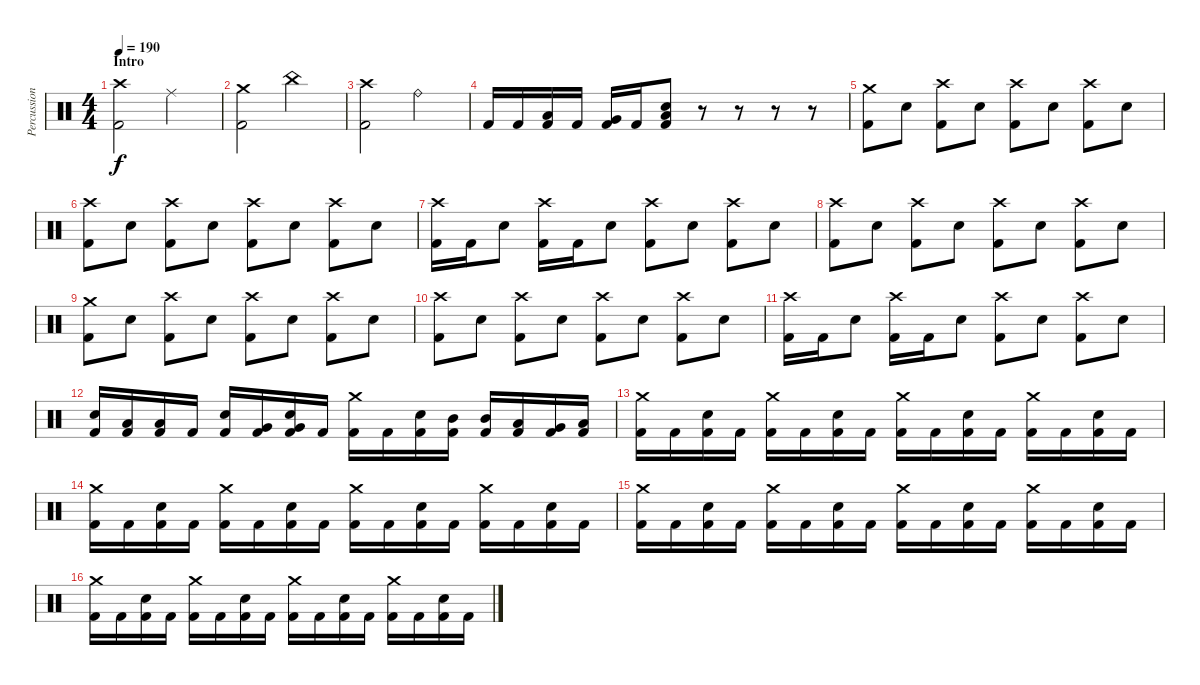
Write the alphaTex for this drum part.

\track ("Percussion" "Percussion") {instrument percussion}
\staff {score}
\articulation defaults
\ts (4 4)
\section ("" "Intro")
\tempo 190
\clef neutral
\ks c
("Crash high (hit)" "Kick (hit) 2").2{dy f} "Ride (middle)".2 |
("Crash medium (hit)" "Kick (hit) 2").2 "China (hit)".2 |
("Crash high (hit)" "Kick (hit) 2").2 "Ride (bell)".2 |
"Kick (hit) 2".16 "Kick (hit) 2".16 ("Low Tom (hit)" "Kick (hit) 2").16 "Kick (hit) 2".16 ("Very Low Tom (hit)" "Kick (hit) 2").16 "Kick (hit) 2".16 ("Low Floor Tom (hit)" "Snare (hit) 2" "Kick (hit) 2").8 r.8 r.8 r.8 r.8 |
("Crash medium (hit)" "Kick (hit) 2").8 "Snare (hit) 2".8 ("Crash high (hit)" "Kick (hit) 2").8 "Snare (hit) 2".8 ("Crash high (hit)" "Kick (hit) 2").8 "Snare (hit) 2".8 ("Crash high (hit)" "Kick (hit) 2").8 "Snare (hit) 2".8 |
("Crash high (hit)" "Kick (hit) 2").8 "Snare (hit) 2".8 ("Crash high (hit)" "Kick (hit) 2").8 "Snare (hit) 2".8 ("Crash high (hit)" "Kick (hit) 2").8 "Snare (hit) 2".8 ("Crash high (hit)" "Kick (hit) 2").8 "Snare (hit) 2".8 |
("Crash high (hit)" "Kick (hit) 2").16 "Kick (hit) 2".16 "Snare (hit) 2".8 ("Crash high (hit)" "Kick (hit) 2").16 "Kick (hit) 2".16 "Snare (hit) 2".8 ("Crash high (hit)" "Kick (hit) 2").8 "Snare (hit) 2".8 ("Crash high (hit)" "Kick (hit) 2").8 "Snare (hit) 2".8 |
("Crash high (hit)" "Kick (hit) 2").8 "Snare (hit) 2".8 ("Crash high (hit)" "Kick (hit) 2").8 "Snare (hit) 2".8 ("Crash high (hit)" "Kick (hit) 2").8 "Snare (hit) 2".8 ("Crash high (hit)" "Kick (hit) 2").8 "Snare (hit) 2".8 |
("Crash medium (hit)" "Kick (hit) 2").8 "Snare (hit) 2".8 ("Crash high (hit)" "Kick (hit) 2").8 "Snare (hit) 2".8 ("Crash high (hit)" "Kick (hit) 2").8 "Snare (hit) 2".8 ("Crash high (hit)" "Kick (hit) 2").8 "Snare (hit) 2".8 |
("Crash high (hit)" "Kick (hit) 2").8 "Snare (hit) 2".8 ("Crash high (hit)" "Kick (hit) 2").8 "Snare (hit) 2".8 ("Crash high (hit)" "Kick (hit) 2").8 "Snare (hit) 2".8 ("Crash high (hit)" "Kick (hit) 2").8 "Snare (hit) 2".8 |
("Crash high (hit)" "Kick (hit) 2").16 "Kick (hit) 2".16 "Snare (hit) 2".8 ("Crash high (hit)" "Kick (hit) 2").16 "Kick (hit) 2".16 "Snare (hit) 2".8 ("Crash high (hit)" "Kick (hit) 2").8 "Snare (hit) 2".8 ("Crash high (hit)" "Kick (hit) 2").8 "Snare (hit) 2".8 |
("Snare (hit) 2" "Kick (hit) 2").16 ("Low Tom (hit)" "Kick (hit) 2").16 ("Low Tom (hit)" "Kick (hit) 2").16 "Kick (hit) 2".16 ("Snare (hit) 2" "Kick (hit) 2").16 ("Very Low Tom (hit)" "Kick (hit) 2").16 ("Snare (hit) 2" "Very Low Tom (hit)" "Kick (hit) 2").16 "Kick (hit) 2".16 ("Crash medium (hit)" "Kick (hit) 2").16 "Kick (hit) 2".16 ("Snare (hit) 2" "Kick (hit) 2").16 ("Mid Tom (hit)" "Kick (hit) 2").16 ("Mid Tom (hit)" "Kick (hit) 2").16 ("Low Tom (hit)" "Kick (hit) 2").16 ("Very Low Tom (hit)" "Kick (hit) 2").16 ("Low Floor Tom (hit)" "Kick (hit) 2").16 |
("Crash medium (hit)" "Kick (hit) 2").16 "Kick (hit) 2".16 ("Snare (hit) 2" "Kick (hit) 2").16 "Kick (hit) 2".16 ("Crash medium (hit)" "Kick (hit) 2").16 "Kick (hit) 2".16 ("Snare (hit) 2" "Kick (hit) 2").16 "Kick (hit) 2".16 ("Crash medium (hit)" "Kick (hit) 2").16 "Kick (hit) 2".16 ("Snare (hit) 2" "Kick (hit) 2").16 "Kick (hit) 2".16 ("Crash medium (hit)" "Kick (hit) 2").16 "Kick (hit) 2".16 ("Snare (hit) 2" "Kick (hit) 2").16 "Kick (hit) 2".16 |
("Crash medium (hit)" "Kick (hit) 2").16 "Kick (hit) 2".16 ("Snare (hit) 2" "Kick (hit) 2").16 "Kick (hit) 2".16 ("Crash medium (hit)" "Kick (hit) 2").16 "Kick (hit) 2".16 ("Snare (hit) 2" "Kick (hit) 2").16 "Kick (hit) 2".16 ("Crash medium (hit)" "Kick (hit) 2").16 "Kick (hit) 2".16 ("Snare (hit) 2" "Kick (hit) 2").16 "Kick (hit) 2".16 ("Crash medium (hit)" "Kick (hit) 2").16 "Kick (hit) 2".16 ("Snare (hit) 2" "Kick (hit) 2").16 "Kick (hit) 2".16 |
("Crash medium (hit)" "Kick (hit) 2").16 "Kick (hit) 2".16 ("Snare (hit) 2" "Kick (hit) 2").16 "Kick (hit) 2".16 ("Crash medium (hit)" "Kick (hit) 2").16 "Kick (hit) 2".16 ("Snare (hit) 2" "Kick (hit) 2").16 "Kick (hit) 2".16 ("Crash medium (hit)" "Kick (hit) 2").16 "Kick (hit) 2".16 ("Snare (hit) 2" "Kick (hit) 2").16 "Kick (hit) 2".16 ("Crash medium (hit)" "Kick (hit) 2").16 "Kick (hit) 2".16 ("Snare (hit) 2" "Kick (hit) 2").16 "Kick (hit) 2".16 |
("Crash medium (hit)" "Kick (hit) 2").16 "Kick (hit) 2".16 ("Snare (hit) 2" "Kick (hit) 2").16 "Kick (hit) 2".16 ("Crash medium (hit)" "Kick (hit) 2").16 "Kick (hit) 2".16 ("Snare (hit) 2" "Kick (hit) 2").16 "Kick (hit) 2".16 ("Crash medium (hit)" "Kick (hit) 2").16 "Kick (hit) 2".16 ("Snare (hit) 2" "Kick (hit) 2").16 "Kick (hit) 2".16 ("Crash medium (hit)" "Kick (hit) 2").16 "Kick (hit) 2".16 ("Snare (hit) 2" "Kick (hit) 2").16 "Kick (hit) 2".16
